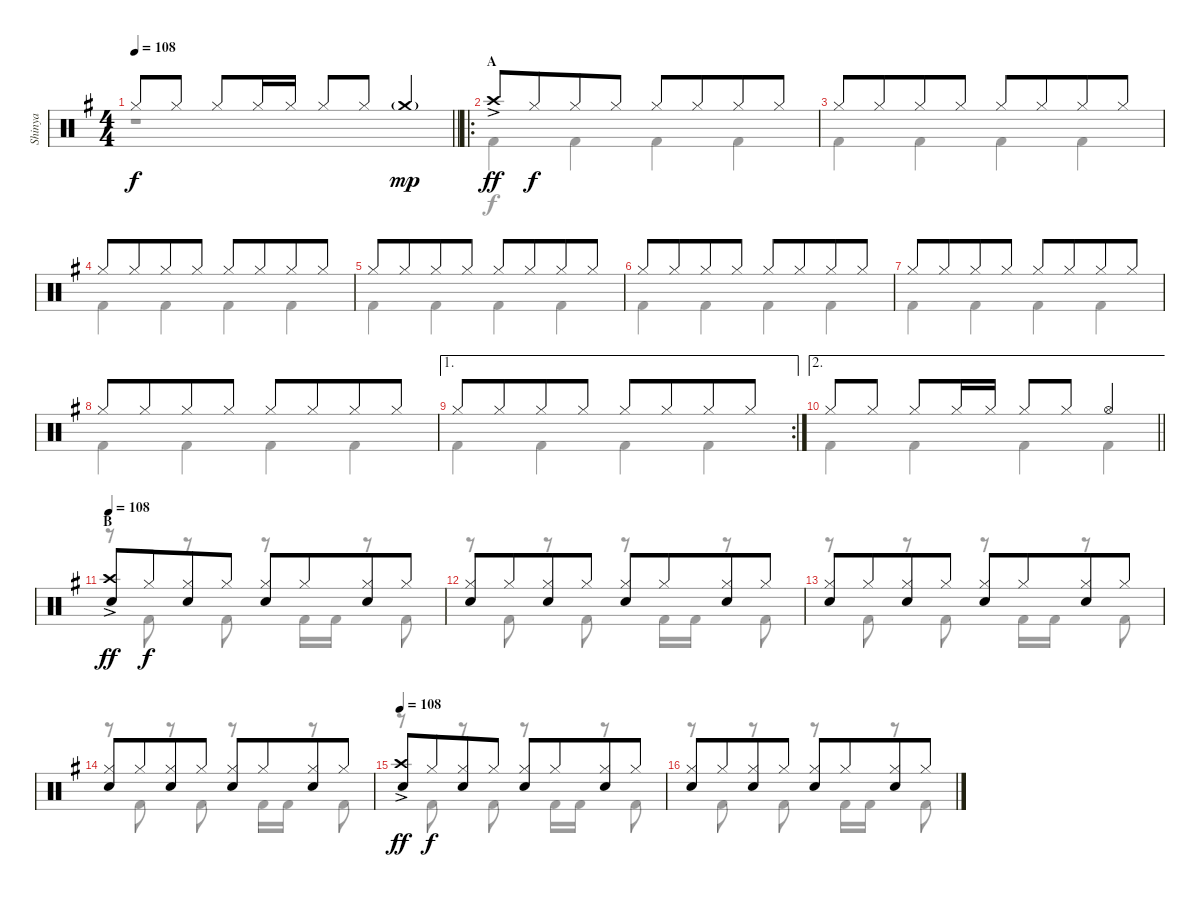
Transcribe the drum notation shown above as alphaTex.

\track ("Shinya" "Shinya") {instrument percussion}
\staff {score}
\articulation defaults
\voice
\ts (4 4)
\tempo 108
\clef neutral
\barLineRight lightlight
\ks eminor "Hi-Hat (closed)".8{dy f} "Hi-Hat (closed)".8 "Hi-Hat (closed)".8 "Hi-Hat (closed)".16 "Hi-Hat (closed)".16 "Hi-Hat (closed)".8 "Hi-Hat (closed)".8 "Crash medium (hit)"{g}.4{dy mp}
|
\ro
\section ("" "A")
"Crash high (hit)"{ac}.8{dy ff} "Hi-Hat (closed)".8{dy f beam merge} "Hi-Hat (closed)".8 "Hi-Hat (closed)".8 "Hi-Hat (closed)".8 "Hi-Hat (closed)".8{beam merge} "Hi-Hat (closed)".8 "Hi-Hat (closed)".8 |
"Hi-Hat (closed)".8 "Hi-Hat (closed)".8{beam merge} "Hi-Hat (closed)".8 "Hi-Hat (closed)".8 "Hi-Hat (closed)".8 "Hi-Hat (closed)".8{beam merge} "Hi-Hat (closed)".8 "Hi-Hat (closed)".8 |
"Hi-Hat (closed)".8 "Hi-Hat (closed)".8{beam merge} "Hi-Hat (closed)".8 "Hi-Hat (closed)".8 "Hi-Hat (closed)".8 "Hi-Hat (closed)".8{beam merge} "Hi-Hat (closed)".8 "Hi-Hat (closed)".8 |
"Hi-Hat (closed)".8 "Hi-Hat (closed)".8{beam merge} "Hi-Hat (closed)".8 "Hi-Hat (closed)".8 "Hi-Hat (closed)".8 "Hi-Hat (closed)".8{beam merge} "Hi-Hat (closed)".8 "Hi-Hat (closed)".8 |
"Hi-Hat (closed)".8 "Hi-Hat (closed)".8{beam merge} "Hi-Hat (closed)".8 "Hi-Hat (closed)".8 "Hi-Hat (closed)".8 "Hi-Hat (closed)".8{beam merge} "Hi-Hat (closed)".8 "Hi-Hat (closed)".8 |
"Hi-Hat (closed)".8 "Hi-Hat (closed)".8{beam merge} "Hi-Hat (closed)".8 "Hi-Hat (closed)".8 "Hi-Hat (closed)".8 "Hi-Hat (closed)".8{beam merge} "Hi-Hat (closed)".8 "Hi-Hat (closed)".8 |
"Hi-Hat (closed)".8 "Hi-Hat (closed)".8{beam merge} "Hi-Hat (closed)".8 "Hi-Hat (closed)".8 "Hi-Hat (closed)".8 "Hi-Hat (closed)".8{beam merge} "Hi-Hat (closed)".8 "Hi-Hat (closed)".8 |
\ae 1
\rc 2 "Hi-Hat (closed)".8 "Hi-Hat (closed)".8{beam merge} "Hi-Hat (closed)".8 "Hi-Hat (closed)".8 "Hi-Hat (closed)".8 "Hi-Hat (closed)".8{beam merge} "Hi-Hat (closed)".8 "Hi-Hat (closed)".8
|
\ae 2
\barLineRight lightlight "Hi-Hat (closed)".8 "Hi-Hat (closed)".8 "Hi-Hat (closed)".8 "Hi-Hat (closed)".16 "Hi-Hat (closed)".16 "Hi-Hat (closed)".8 "Hi-Hat (closed)".8 "Hi-Hat (open)".4
|
\section ("" "B")
\tempo 108
("Crash high (hit)"{ac} "Snare (hit) 2").8{dy ff} "Hi-Hat (closed)".8{dy f beam merge} ("Hi-Hat (closed)" "Snare (hit) 2").8 "Hi-Hat (closed)".8 ("Hi-Hat (closed)" "Snare (hit) 2").8 "Hi-Hat (closed)".8{beam merge} ("Hi-Hat (closed)" "Snare (hit) 2").8 "Hi-Hat (closed)".8 |
("Hi-Hat (closed)" "Snare (hit) 2").8 "Hi-Hat (closed)".8{beam merge} ("Hi-Hat (closed)" "Snare (hit) 2").8 "Hi-Hat (closed)".8 ("Hi-Hat (closed)" "Snare (hit) 2").8 "Hi-Hat (closed)".8{beam merge} ("Hi-Hat (closed)" "Snare (hit) 2").8 "Hi-Hat (closed)".8 |
("Hi-Hat (closed)" "Snare (hit) 2").8 "Hi-Hat (closed)".8{beam merge} ("Hi-Hat (closed)" "Snare (hit) 2").8 "Hi-Hat (closed)".8 ("Hi-Hat (closed)" "Snare (hit) 2").8 "Hi-Hat (closed)".8{beam merge} ("Hi-Hat (closed)" "Snare (hit) 2").8 "Hi-Hat (closed)".8 |
("Hi-Hat (closed)" "Snare (hit) 2").8 "Hi-Hat (closed)".8{beam merge} ("Hi-Hat (closed)" "Snare (hit) 2").8 "Hi-Hat (closed)".8 ("Hi-Hat (closed)" "Snare (hit) 2").8 "Hi-Hat (closed)".8{beam merge} ("Hi-Hat (closed)" "Snare (hit) 2").8 "Hi-Hat (closed)".8 |
\tempo 108
("Crash high (hit)"{ac} "Snare (hit) 2").8{dy ff} "Hi-Hat (closed)".8{dy f beam merge} ("Hi-Hat (closed)" "Snare (hit) 2").8 "Hi-Hat (closed)".8 ("Hi-Hat (closed)" "Snare (hit) 2").8 "Hi-Hat (closed)".8{beam merge} ("Hi-Hat (closed)" "Snare (hit) 2").8 "Hi-Hat (closed)".8 |
("Hi-Hat (closed)" "Snare (hit) 2").8 "Hi-Hat (closed)".8{beam merge} ("Hi-Hat (closed)" "Snare (hit) 2").8 "Hi-Hat (closed)".8 ("Hi-Hat (closed)" "Snare (hit) 2").8 "Hi-Hat (closed)".8{beam merge} ("Hi-Hat (closed)" "Snare (hit) 2").8 "Hi-Hat (closed)".8
\voice
\clef neutral
\ottava regular
\simile none
\barLineRight lightlight
\ks eminor
r.1{dy f} |
"Kick (hit) 2".4 "Kick (hit) 2".4 "Kick (hit) 2".4 "Kick (hit) 2".4 |
"Kick (hit) 2".4 "Kick (hit) 2".4 "Kick (hit) 2".4 "Kick (hit) 2".4 |
"Kick (hit) 2".4 "Kick (hit) 2".4 "Kick (hit) 2".4 "Kick (hit) 2".4 |
"Kick (hit) 2".4 "Kick (hit) 2".4 "Kick (hit) 2".4 "Kick (hit) 2".4 |
"Kick (hit) 2".4 "Kick (hit) 2".4 "Kick (hit) 2".4 "Kick (hit) 2".4 |
"Kick (hit) 2".4 "Kick (hit) 2".4 "Kick (hit) 2".4 "Kick (hit) 2".4 |
"Kick (hit) 2".4 "Kick (hit) 2".4 "Kick (hit) 2".4 "Kick (hit) 2".4 |
"Kick (hit) 2".4 "Kick (hit) 2".4 "Kick (hit) 2".4 "Kick (hit) 2".4 |
\barLineRight lightlight "Kick (hit) 2".4 "Kick (hit) 2".4 "Kick (hit) 2".4 "Kick (hit) 2".4
|
r.8 "Kick (hit) 2".8 r.8 "Kick (hit) 2".8 r.8 "Kick (hit) 2".16 "Kick (hit) 2".16 r.8 "Kick (hit) 2".8 |
r.8 "Kick (hit) 2".8 r.8 "Kick (hit) 2".8 r.8 "Kick (hit) 2".16 "Kick (hit) 2".16 r.8 "Kick (hit) 2".8 |
r.8 "Kick (hit) 2".8 r.8 "Kick (hit) 2".8 r.8 "Kick (hit) 2".16 "Kick (hit) 2".16 r.8 "Kick (hit) 2".8 |
r.8 "Kick (hit) 2".8 r.8 "Kick (hit) 2".8 r.8 "Kick (hit) 2".16 "Kick (hit) 2".16 r.8 "Kick (hit) 2".8 |
r.8 "Kick (hit) 2".8 r.8 "Kick (hit) 2".8 r.8 "Kick (hit) 2".16 "Kick (hit) 2".16 r.8 "Kick (hit) 2".8 |
r.8 "Kick (hit) 2".8 r.8 "Kick (hit) 2".8 r.8 "Kick (hit) 2".16 "Kick (hit) 2".16 r.8 "Kick (hit) 2".8
